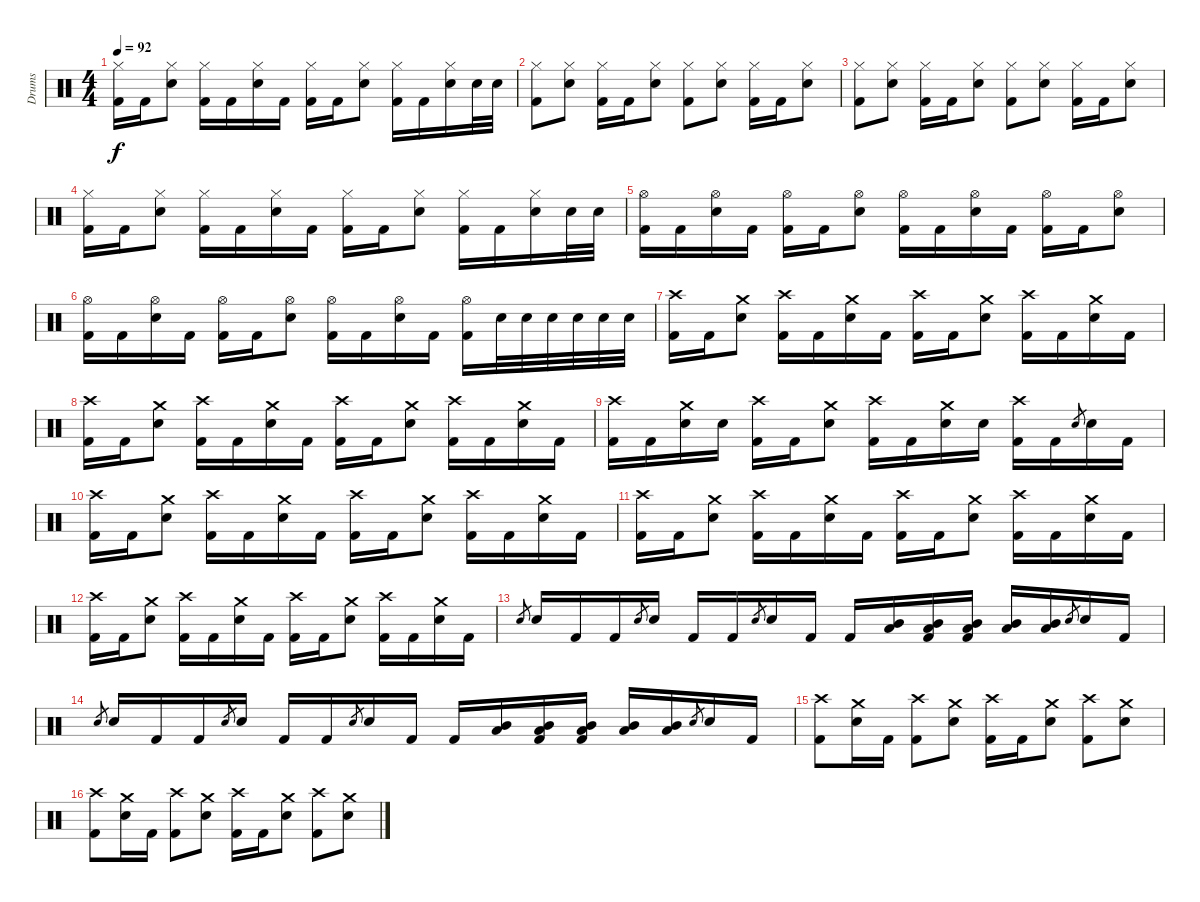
\track ("Drums" "Drums") {instrument percussion}
\staff {score}
\articulation defaults
\ts (4 4)
\tempo 92
\clef neutral
\ks c
("Hi-Hat (closed)" "Kick (hit) 2").16{dy f} "Kick (hit) 2".16 ("Hi-Hat (closed)" "Snare (hit) 2").8 ("Hi-Hat (closed)" "Kick (hit) 2").16 "Kick (hit) 2".16 ("Hi-Hat (closed)" "Snare (hit) 2").16 "Kick (hit) 2".16 ("Hi-Hat (closed)" "Kick (hit) 2").16 "Kick (hit) 2".16 ("Hi-Hat (closed)" "Snare (hit) 2").8 ("Hi-Hat (closed)" "Kick (hit) 2").16 "Kick (hit) 2".16 ("Hi-Hat (closed)" "Snare (hit) 2").16 "Snare (hit) 2".32 "Snare (hit) 2".32 |
("Hi-Hat (closed)" "Kick (hit) 2").8 ("Hi-Hat (closed)" "Snare (hit) 2").8 ("Hi-Hat (closed)" "Kick (hit) 2").16 "Kick (hit) 2".16 ("Hi-Hat (closed)" "Snare (hit) 2").8 ("Hi-Hat (closed)" "Kick (hit) 2").8 ("Hi-Hat (closed)" "Snare (hit) 2").8 ("Hi-Hat (closed)" "Kick (hit) 2").16 "Kick (hit) 2".16 ("Hi-Hat (closed)" "Snare (hit) 2").8 |
("Hi-Hat (closed)" "Kick (hit) 2").8 ("Hi-Hat (closed)" "Snare (hit) 2").8 ("Hi-Hat (closed)" "Kick (hit) 2").16 "Kick (hit) 2".16 ("Hi-Hat (closed)" "Snare (hit) 2").8 ("Hi-Hat (closed)" "Kick (hit) 2").8 ("Hi-Hat (closed)" "Snare (hit) 2").8 ("Hi-Hat (closed)" "Kick (hit) 2").16 "Kick (hit) 2".16 ("Hi-Hat (closed)" "Snare (hit) 2").8 |
("Hi-Hat (closed)" "Kick (hit) 2").16 "Kick (hit) 2".16 ("Hi-Hat (closed)" "Snare (hit) 2").8 ("Hi-Hat (closed)" "Kick (hit) 2").16 "Kick (hit) 2".16 ("Hi-Hat (closed)" "Snare (hit) 2").16 "Kick (hit) 2".16 ("Hi-Hat (closed)" "Kick (hit) 2").16 "Kick (hit) 2".16 ("Hi-Hat (closed)" "Snare (hit) 2").8 ("Hi-Hat (closed)" "Kick (hit) 2").16 "Kick (hit) 2".16 ("Hi-Hat (closed)" "Snare (hit) 2").16 "Snare (hit) 2".32 "Snare (hit) 2".32 |
("Hi-Hat (open)" "Kick (hit) 2").16 "Kick (hit) 2".16 ("Hi-Hat (open)" "Snare (hit) 2").16 "Kick (hit) 2".16 ("Hi-Hat (open)" "Kick (hit) 2").16 "Kick (hit) 2".16 ("Hi-Hat (open)" "Snare (hit) 2").8 ("Hi-Hat (open)" "Kick (hit) 2").16 "Kick (hit) 2".16 ("Hi-Hat (open)" "Snare (hit) 2").16 "Kick (hit) 2".16 ("Hi-Hat (open)" "Kick (hit) 2").16 "Kick (hit) 2".16 ("Hi-Hat (open)" "Snare (hit) 2").8 |
("Hi-Hat (open)" "Kick (hit) 2").16 "Kick (hit) 2".16 ("Hi-Hat (open)" "Snare (hit) 2").16 "Kick (hit) 2".16 ("Hi-Hat (open)" "Kick (hit) 2").16 "Kick (hit) 2".16 ("Hi-Hat (open)" "Snare (hit) 2").8 ("Hi-Hat (open)" "Kick (hit) 2").16 "Kick (hit) 2".16 ("Hi-Hat (open)" "Snare (hit) 2").16 "Kick (hit) 2".16 ("Hi-Hat (open)" "Kick (hit) 2").16 "Snare (hit) 2".32 "Snare (hit) 2".32 "Snare (hit) 2".32 "Snare (hit) 2".32 "Snare (hit) 2".32 "Snare (hit) 2".32 |
("Crash high (hit)" "Kick (hit) 2").16 "Kick (hit) 2".16 ("Crash medium (hit)" "Snare (hit) 2").8 ("Crash high (hit)" "Kick (hit) 2").16 "Kick (hit) 2".16 ("Crash medium (hit)" "Snare (hit) 2").16 "Kick (hit) 2".16 ("Crash high (hit)" "Kick (hit) 2").16 "Kick (hit) 2".16 ("Crash medium (hit)" "Snare (hit) 2").8 ("Crash high (hit)" "Kick (hit) 2").16 "Kick (hit) 2".16 ("Crash medium (hit)" "Snare (hit) 2").16 "Kick (hit) 2".16 |
("Crash high (hit)" "Kick (hit) 2").16 "Kick (hit) 2".16 ("Crash medium (hit)" "Snare (hit) 2").8 ("Crash high (hit)" "Kick (hit) 2").16 "Kick (hit) 2".16 ("Crash medium (hit)" "Snare (hit) 2").16 "Kick (hit) 2".16 ("Crash high (hit)" "Kick (hit) 2").16 "Kick (hit) 2".16 ("Crash medium (hit)" "Snare (hit) 2").8 ("Crash high (hit)" "Kick (hit) 2").16 "Kick (hit) 2".16 ("Crash medium (hit)" "Snare (hit) 2").16 "Kick (hit) 2".16 |
("Crash high (hit)" "Kick (hit) 2").16 "Kick (hit) 2".16 ("Crash medium (hit)" "Snare (hit) 2").16 "Snare (hit) 2".16 ("Crash high (hit)" "Kick (hit) 2").16 "Kick (hit) 2".16 ("Crash medium (hit)" "Snare (hit) 2").8 ("Crash high (hit)" "Kick (hit) 2").16 "Kick (hit) 2".16 ("Crash medium (hit)" "Snare (hit) 2").16 "Snare (hit) 2".16 ("Crash high (hit)" "Kick (hit) 2").16 "Kick (hit) 2".16 "Snare (hit) 2".8{gr} "Snare (hit) 2".16 "Kick (hit) 2".16 |
("Crash high (hit)" "Kick (hit) 2").16 "Kick (hit) 2".16 ("Crash medium (hit)" "Snare (hit) 2").8 ("Crash high (hit)" "Kick (hit) 2").16 "Kick (hit) 2".16 ("Crash medium (hit)" "Snare (hit) 2").16 "Kick (hit) 2".16 ("Crash high (hit)" "Kick (hit) 2").16 "Kick (hit) 2".16 ("Crash medium (hit)" "Snare (hit) 2").8 ("Crash high (hit)" "Kick (hit) 2").16 "Kick (hit) 2".16 ("Crash medium (hit)" "Snare (hit) 2").16 "Kick (hit) 2".16 |
("Crash high (hit)" "Kick (hit) 2").16 "Kick (hit) 2".16 ("Crash medium (hit)" "Snare (hit) 2").8 ("Crash high (hit)" "Kick (hit) 2").16 "Kick (hit) 2".16 ("Crash medium (hit)" "Snare (hit) 2").16 "Kick (hit) 2".16 ("Crash high (hit)" "Kick (hit) 2").16 "Kick (hit) 2".16 ("Crash medium (hit)" "Snare (hit) 2").8 ("Crash high (hit)" "Kick (hit) 2").16 "Kick (hit) 2".16 ("Crash medium (hit)" "Snare (hit) 2").16 "Kick (hit) 2".16 |
("Crash high (hit)" "Kick (hit) 2").16 "Kick (hit) 2".16 ("Crash medium (hit)" "Snare (hit) 2").8 ("Crash high (hit)" "Kick (hit) 2").16 "Kick (hit) 2".16 ("Crash medium (hit)" "Snare (hit) 2").16 "Kick (hit) 2".16 ("Crash high (hit)" "Kick (hit) 2").16 "Kick (hit) 2".16 ("Crash medium (hit)" "Snare (hit) 2").8 ("Crash high (hit)" "Kick (hit) 2").16 "Kick (hit) 2".16 ("Crash medium (hit)" "Snare (hit) 2").16 "Kick (hit) 2".16 |
"Snare (hit) 2".8{gr} "Snare (hit) 2".16 "Kick (hit) 2".16 "Kick (hit) 2".16 "Snare (hit) 2".8{gr} "Snare (hit) 2".16 "Kick (hit) 2".16 "Kick (hit) 2".16 "Snare (hit) 2".8{gr} "Snare (hit) 2".16 "Kick (hit) 2".16 "Kick (hit) 2".16 ("Mid Tom (hit)" "Low Tom (hit)").16 ("Mid Tom (hit)" "Low Tom (hit)" "Kick (hit) 2").16 ("Mid Tom (hit)" "Low Tom (hit)" "Kick (hit) 2").16 ("Mid Tom (hit)" "Low Tom (hit)").16 ("Mid Tom (hit)" "Low Tom (hit)").16 "Snare (hit) 2".8{gr} "Snare (hit) 2".16 "Kick (hit) 2".16 |
"Snare (hit) 2".8{gr} "Snare (hit) 2".16 "Kick (hit) 2".16 "Kick (hit) 2".16 "Snare (hit) 2".8{gr} "Snare (hit) 2".16 "Kick (hit) 2".16 "Kick (hit) 2".16 "Snare (hit) 2".8{gr} "Snare (hit) 2".16 "Kick (hit) 2".16 "Kick (hit) 2".16 ("Mid Tom (hit)" "Low Tom (hit)").16 ("Mid Tom (hit)" "Low Tom (hit)" "Kick (hit) 2").16 ("Mid Tom (hit)" "Low Tom (hit)" "Kick (hit) 2").16 ("Mid Tom (hit)" "Low Tom (hit)").16 ("Mid Tom (hit)" "Low Tom (hit)").16 "Snare (hit) 2".8{gr} "Snare (hit) 2".16 "Kick (hit) 2".16 |
("Crash high (hit)" "Kick (hit) 2").8 ("Crash medium (hit)" "Snare (hit) 2").16 "Kick (hit) 2".16 ("Crash high (hit)" "Kick (hit) 2").8 ("Crash medium (hit)" "Snare (hit) 2").8 ("Crash high (hit)" "Kick (hit) 2").16 "Kick (hit) 2".16 ("Crash medium (hit)" "Snare (hit) 2").8 ("Crash high (hit)" "Kick (hit) 2").8 ("Crash medium (hit)" "Snare (hit) 2").8 |
("Crash high (hit)" "Kick (hit) 2").8 ("Crash medium (hit)" "Snare (hit) 2").16 "Kick (hit) 2".16 ("Crash high (hit)" "Kick (hit) 2").8 ("Crash medium (hit)" "Snare (hit) 2").8 ("Crash high (hit)" "Kick (hit) 2").16 "Kick (hit) 2".16 ("Crash medium (hit)" "Snare (hit) 2").8 ("Crash high (hit)" "Kick (hit) 2").8 ("Crash medium (hit)" "Snare (hit) 2").8
